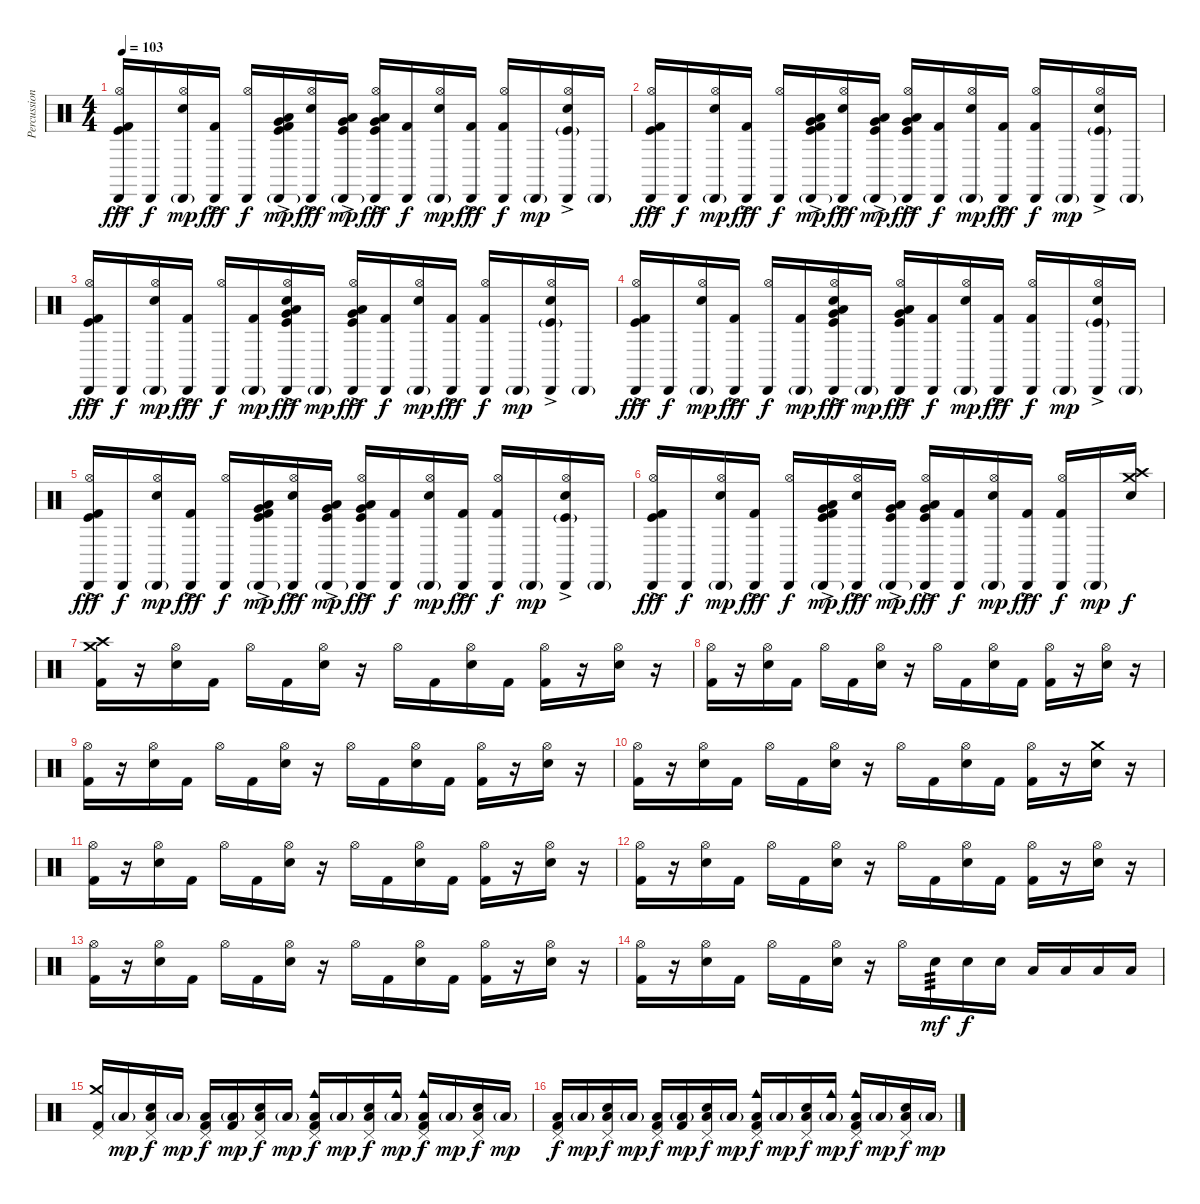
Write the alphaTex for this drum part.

\track ("Percussion" "Percussion") {instrument percussion}
\staff {score}
\articulation defaults
\ts (4 4)
\tempo 103
\clef neutral
\ks c
("Cabasa (hit)"{ac} "Kick (hit)" "Hi-Hat (open)" "Kick (hit) 2").16{dy fff} "Cabasa (hit)".16{dy f} ("Cabasa (hit)"{g} "Hi-Hat (open)" "Electric Snare (hit)").16{dy mp} ("Cabasa (hit)"{ac} "Kick (hit) 2").16{dy fff} ("Cabasa (hit)" "Hi-Hat (open)").16{dy f} ("Cabasa (hit)"{g} "Low Floor Tom (hit)"{ac} "Very Low Tom (hit)"{ac} "Kick (hit)"{ac} "Kick (hit) 2").16{dy mp} ("Cabasa (hit)"{ac} "Hi-Hat (open)" "Electric Snare (hit)").16{dy fff} ("Cabasa (hit)"{g} "Low Floor Tom (hit)"{ac} "Very Low Tom (hit)"{ac} "Kick (hit)"{ac}).16{dy mp} ("Cabasa (hit)"{ac} "Low Floor Tom (hit)"{ac} "Very Low Tom (hit)"{ac} "Kick (hit)"{ac} "Hi-Hat (open)").16{dy fff} ("Cabasa (hit)" "Kick (hit) 2").16{dy f} ("Cabasa (hit)"{g} "Hi-Hat (open)" "Electric Snare (hit)").16{dy mp} ("Cabasa (hit)"{ac} "Kick (hit) 2").16{dy fff} ("Cabasa (hit)" "Hi-Hat (open)" "Kick (hit) 2").16{dy f} "Cabasa (hit)"{g}.16{dy mp} ("Cabasa (hit)"{ac} "Kick (hit)"{g} "Hi-Hat (open)" "Electric Snare (hit)").16 "Cabasa (hit)"{g}.16 |
("Cabasa (hit)"{ac} "Kick (hit)" "Hi-Hat (open)" "Kick (hit) 2").16{dy fff} "Cabasa (hit)".16{dy f} ("Cabasa (hit)"{g} "Hi-Hat (open)" "Electric Snare (hit)").16{dy mp} ("Cabasa (hit)"{ac} "Kick (hit) 2").16{dy fff} ("Cabasa (hit)" "Hi-Hat (open)").16{dy f} ("Cabasa (hit)"{g} "Low Floor Tom (hit)"{ac} "Very Low Tom (hit)"{ac} "Kick (hit)"{ac} "Kick (hit) 2").16{dy mp} ("Cabasa (hit)"{ac} "Hi-Hat (open)" "Electric Snare (hit)").16{dy fff} ("Cabasa (hit)"{g} "Low Floor Tom (hit)"{ac} "Very Low Tom (hit)"{ac} "Kick (hit)"{ac}).16{dy mp} ("Cabasa (hit)"{ac} "Low Floor Tom (hit)"{ac} "Very Low Tom (hit)"{ac} "Kick (hit)"{ac} "Hi-Hat (open)").16{dy fff} ("Cabasa (hit)" "Kick (hit) 2").16{dy f} ("Cabasa (hit)"{g} "Hi-Hat (open)" "Electric Snare (hit)").16{dy mp} ("Cabasa (hit)"{ac} "Kick (hit) 2").16{dy fff} ("Cabasa (hit)" "Hi-Hat (open)" "Kick (hit) 2").16{dy f} "Cabasa (hit)"{g}.16{dy mp} ("Cabasa (hit)"{ac} "Kick (hit)"{g} "Hi-Hat (open)" "Electric Snare (hit)").16 "Cabasa (hit)"{g}.16 |
("Cabasa (hit)"{ac} "Kick (hit)" "Hi-Hat (open)" "Kick (hit) 2").16{dy fff} "Cabasa (hit)".16{dy f} ("Cabasa (hit)"{g} "Hi-Hat (open)" "Electric Snare (hit)").16{dy mp} ("Cabasa (hit)"{ac} "Kick (hit) 2").16{dy fff} ("Cabasa (hit)" "Hi-Hat (open)").16{dy f} ("Cabasa (hit)"{g} "Kick (hit) 2").16{dy mp} ("Cabasa (hit)"{ac} "Low Floor Tom (hit)"{ac} "Very Low Tom (hit)"{ac} "Kick (hit)"{ac} "Hi-Hat (open)" "Electric Snare (hit)").16{dy fff} "Cabasa (hit)"{g}.16{dy mp} ("Cabasa (hit)"{ac} "Low Floor Tom (hit)"{ac} "Very Low Tom (hit)"{ac} "Kick (hit)"{ac} "Hi-Hat (open)").16{dy fff} ("Cabasa (hit)" "Kick (hit) 2").16{dy f} ("Cabasa (hit)"{g} "Hi-Hat (open)" "Electric Snare (hit)").16{dy mp} ("Cabasa (hit)"{ac} "Kick (hit) 2").16{dy fff} ("Cabasa (hit)" "Hi-Hat (open)" "Kick (hit) 2").16{dy f} "Cabasa (hit)"{g}.16{dy mp} ("Cabasa (hit)"{ac} "Kick (hit)"{g} "Hi-Hat (open)" "Electric Snare (hit)").16 "Cabasa (hit)"{g}.16 |
("Cabasa (hit)"{ac} "Kick (hit)" "Hi-Hat (open)" "Kick (hit) 2").16{dy fff} "Cabasa (hit)".16{dy f} ("Cabasa (hit)"{g} "Hi-Hat (open)" "Electric Snare (hit)").16{dy mp} ("Cabasa (hit)"{ac} "Kick (hit) 2").16{dy fff} ("Cabasa (hit)" "Hi-Hat (open)").16{dy f} ("Cabasa (hit)"{g} "Kick (hit) 2").16{dy mp} ("Cabasa (hit)"{ac} "Low Floor Tom (hit)"{ac} "Very Low Tom (hit)"{ac} "Kick (hit)"{ac} "Hi-Hat (open)" "Electric Snare (hit)").16{dy fff} "Cabasa (hit)"{g}.16{dy mp} ("Cabasa (hit)"{ac} "Low Floor Tom (hit)"{ac} "Very Low Tom (hit)"{ac} "Kick (hit)"{ac} "Hi-Hat (open)").16{dy fff} ("Cabasa (hit)" "Kick (hit) 2").16{dy f} ("Cabasa (hit)"{g} "Hi-Hat (open)" "Electric Snare (hit)").16{dy mp} ("Cabasa (hit)"{ac} "Kick (hit) 2").16{dy fff} ("Cabasa (hit)" "Hi-Hat (open)" "Kick (hit) 2").16{dy f} "Cabasa (hit)"{g}.16{dy mp} ("Cabasa (hit)"{ac} "Kick (hit)"{g} "Hi-Hat (open)" "Electric Snare (hit)").16 "Cabasa (hit)"{g}.16 |
("Cabasa (hit)"{ac} "Kick (hit)" "Hi-Hat (open)" "Kick (hit) 2").16{dy fff} "Cabasa (hit)".16{dy f} ("Cabasa (hit)"{g} "Hi-Hat (open)" "Electric Snare (hit)").16{dy mp} ("Cabasa (hit)"{ac} "Kick (hit) 2").16{dy fff} ("Cabasa (hit)" "Hi-Hat (open)").16{dy f} ("Cabasa (hit)"{g} "Low Floor Tom (hit)"{ac} "Very Low Tom (hit)"{ac} "Kick (hit)"{ac} "Kick (hit) 2").16{dy mp} ("Cabasa (hit)"{ac} "Hi-Hat (open)" "Electric Snare (hit)").16{dy fff} ("Cabasa (hit)"{g} "Low Floor Tom (hit)"{ac} "Very Low Tom (hit)"{ac} "Kick (hit)"{ac}).16{dy mp} ("Cabasa (hit)"{ac} "Low Floor Tom (hit)"{ac} "Very Low Tom (hit)"{ac} "Kick (hit)"{ac} "Hi-Hat (open)").16{dy fff} ("Cabasa (hit)" "Kick (hit) 2").16{dy f} ("Cabasa (hit)"{g} "Hi-Hat (open)" "Electric Snare (hit)").16{dy mp} ("Cabasa (hit)"{ac} "Kick (hit) 2").16{dy fff} ("Cabasa (hit)" "Hi-Hat (open)" "Kick (hit) 2").16{dy f} "Cabasa (hit)"{g}.16{dy mp} ("Cabasa (hit)"{ac} "Kick (hit)"{g} "Hi-Hat (open)" "Electric Snare (hit)").16 "Cabasa (hit)"{g}.16 |
("Cabasa (hit)"{ac} "Kick (hit)" "Hi-Hat (open)" "Kick (hit) 2").16{dy fff} "Cabasa (hit)".16{dy f} ("Cabasa (hit)"{g} "Hi-Hat (open)" "Electric Snare (hit)").16{dy mp} ("Cabasa (hit)"{ac} "Kick (hit) 2").16{dy fff} ("Cabasa (hit)" "Hi-Hat (open)").16{dy f} ("Cabasa (hit)"{g} "Low Floor Tom (hit)"{ac} "Very Low Tom (hit)"{ac} "Kick (hit)"{ac} "Kick (hit) 2").16{dy mp} ("Cabasa (hit)"{ac} "Hi-Hat (open)" "Electric Snare (hit)").16{dy fff} ("Cabasa (hit)"{g} "Low Floor Tom (hit)"{ac} "Very Low Tom (hit)"{ac} "Kick (hit)"{ac}).16{dy mp} ("Cabasa (hit)"{ac} "Low Floor Tom (hit)"{ac} "Very Low Tom (hit)"{ac} "Kick (hit)"{ac} "Hi-Hat (open)").16{dy fff} ("Cabasa (hit)" "Kick (hit) 2").16{dy f} ("Cabasa (hit)"{g} "Hi-Hat (open)" "Electric Snare (hit)").16{dy mp} ("Cabasa (hit)"{ac} "Kick (hit) 2").16{dy fff} ("Cabasa (hit)" "Hi-Hat (open)" "Kick (hit) 2").16{dy f} "Cabasa (hit)"{g}.16{dy mp} ("Crash high (hit)" "Crash medium (hit)" "Electric Snare (hit)").16{dy f} |
("Crash high (hit)" "Kick (hit) 2" "Crash medium (hit)").16 r.16 ("Hi-Hat (open)" "Electric Snare (hit)").16 "Kick (hit) 2".16 "Hi-Hat (open)".16 "Kick (hit) 2".16 ("Hi-Hat (open)" "Electric Snare (hit)").16 r.16 "Hi-Hat (open)".16 "Kick (hit) 2".16 ("Hi-Hat (open)" "Electric Snare (hit)").16 "Kick (hit) 2".16 ("Hi-Hat (open)" "Kick (hit) 2").16 r.16 ("Hi-Hat (open)" "Electric Snare (hit)").16 r.16 |
("Hi-Hat (open)" "Kick (hit) 2").16 r.16 ("Hi-Hat (open)" "Electric Snare (hit)").16 "Kick (hit) 2".16 "Hi-Hat (open)".16 "Kick (hit) 2".16 ("Hi-Hat (open)" "Electric Snare (hit)").16 r.16 "Hi-Hat (open)".16 "Kick (hit) 2".16 ("Hi-Hat (open)" "Electric Snare (hit)").16 "Kick (hit) 2".16 ("Hi-Hat (open)" "Kick (hit) 2").16 r.16 ("Hi-Hat (open)" "Electric Snare (hit)").16 r.16 |
("Hi-Hat (open)" "Kick (hit) 2").16 r.16 ("Hi-Hat (open)" "Electric Snare (hit)").16 "Kick (hit) 2".16 "Hi-Hat (open)".16 "Kick (hit) 2".16 ("Hi-Hat (open)" "Electric Snare (hit)").16 r.16 "Hi-Hat (open)".16 "Kick (hit) 2".16 ("Hi-Hat (open)" "Electric Snare (hit)").16 "Kick (hit) 2".16 ("Hi-Hat (open)" "Kick (hit) 2").16 r.16 ("Hi-Hat (open)" "Electric Snare (hit)").16 r.16 |
("Hi-Hat (open)" "Kick (hit) 2").16 r.16 ("Hi-Hat (open)" "Electric Snare (hit)").16 "Kick (hit) 2".16 "Hi-Hat (open)".16 "Kick (hit) 2".16 ("Hi-Hat (open)" "Electric Snare (hit)").16 r.16 "Hi-Hat (open)".16 "Kick (hit) 2".16 ("Hi-Hat (open)" "Electric Snare (hit)").16 "Kick (hit) 2".16 ("Hi-Hat (open)" "Kick (hit) 2").16 r.16 ("Crash medium (hit)" "Electric Snare (hit)").16 r.16 |
("Hi-Hat (open)" "Kick (hit) 2").16 r.16 ("Hi-Hat (open)" "Electric Snare (hit)").16 "Kick (hit) 2".16 "Hi-Hat (open)".16 "Kick (hit) 2".16 ("Hi-Hat (open)" "Electric Snare (hit)").16 r.16 "Hi-Hat (open)".16 "Kick (hit) 2".16 ("Hi-Hat (open)" "Electric Snare (hit)").16 "Kick (hit) 2".16 ("Hi-Hat (open)" "Kick (hit) 2").16 r.16 ("Hi-Hat (open)" "Electric Snare (hit)").16 r.16 |
("Hi-Hat (open)" "Kick (hit) 2").16 r.16 ("Hi-Hat (open)" "Electric Snare (hit)").16 "Kick (hit) 2".16 "Hi-Hat (open)".16 "Kick (hit) 2".16 ("Hi-Hat (open)" "Electric Snare (hit)").16 r.16 "Hi-Hat (open)".16 "Kick (hit) 2".16 ("Hi-Hat (open)" "Electric Snare (hit)").16 "Kick (hit) 2".16 ("Hi-Hat (open)" "Kick (hit) 2").16 r.16 ("Hi-Hat (open)" "Electric Snare (hit)").16 r.16 |
("Hi-Hat (open)" "Kick (hit) 2").16 r.16 ("Hi-Hat (open)" "Electric Snare (hit)").16 "Kick (hit) 2".16 "Hi-Hat (open)".16 "Kick (hit) 2".16 ("Hi-Hat (open)" "Electric Snare (hit)").16 r.16 "Hi-Hat (open)".16 "Kick (hit) 2".16 ("Hi-Hat (open)" "Electric Snare (hit)").16 "Kick (hit) 2".16 ("Hi-Hat (open)" "Kick (hit) 2").16 r.16 ("Hi-Hat (open)" "Electric Snare (hit)").16 r.16 |
("Hi-Hat (open)" "Kick (hit) 2").16 r.16 ("Hi-Hat (open)" "Electric Snare (hit)").16 "Kick (hit) 2".16 "Hi-Hat (open)".16 "Kick (hit) 2".16 ("Hi-Hat (open)" "Electric Snare (hit)").16 r.16 "Hi-Hat (open)".16 "Electric Snare (hit)".16{tp 3 dy mf} "Electric Snare (hit)".16{dy f} "Electric Snare (hit)".16 "Low Tom (hit)".16 "Low Tom (hit)".16 "Low Floor Tom (hit)".16 "Low Floor Tom (hit)".16 |
("Crash medium (hit)" "Kick (hit) 2" "Pedal Hi-Hat (hit)").16 "Low Floor Tom (hit)"{g}.16{dy mp} ("Low Floor Tom (hit)" "Electric Snare (hit)" "Pedal Hi-Hat (hit)").16{dy f} "Low Floor Tom (hit)"{g}.16{dy mp} ("Low Floor Tom (hit)" "Kick (hit) 2" "Pedal Hi-Hat (hit)").16{dy f} ("Low Floor Tom (hit)"{g} "Kick (hit) 2").16{dy mp} ("Low Floor Tom (hit)" "Electric Snare (hit)" "Pedal Hi-Hat (hit)").16{dy f} "Low Floor Tom (hit)"{g}.16{dy mp} ("Low Floor Tom (hit)" "Kick (hit) 2" "Cowbell medium (hit)" "Pedal Hi-Hat (hit)").16{dy f} "Low Floor Tom (hit)"{g}.16{dy mp} ("Low Floor Tom (hit)" "Electric Snare (hit)" "Pedal Hi-Hat (hit)").16{dy f} ("Low Floor Tom (hit)"{g} "Cowbell medium (hit)").16{dy mp} ("Low Floor Tom (hit)" "Kick (hit) 2" "Cowbell medium (hit)" "Pedal Hi-Hat (hit)").16{dy f} "Low Floor Tom (hit)"{g}.16{dy mp} ("Low Floor Tom (hit)" "Electric Snare (hit)" "Pedal Hi-Hat (hit)").16{dy f} "Low Floor Tom (hit)"{g}.16{dy mp} |
("Low Floor Tom (hit)" "Kick (hit) 2" "Pedal Hi-Hat (hit)").16{dy f} "Low Floor Tom (hit)"{g}.16{dy mp} ("Low Floor Tom (hit)" "Electric Snare (hit)" "Pedal Hi-Hat (hit)").16{dy f} "Low Floor Tom (hit)"{g}.16{dy mp} ("Low Floor Tom (hit)" "Kick (hit) 2" "Pedal Hi-Hat (hit)").16{dy f} ("Low Floor Tom (hit)"{g} "Kick (hit) 2").16{dy mp} ("Low Floor Tom (hit)" "Electric Snare (hit)" "Pedal Hi-Hat (hit)").16{dy f} "Low Floor Tom (hit)"{g}.16{dy mp} ("Low Floor Tom (hit)" "Kick (hit) 2" "Cowbell medium (hit)" "Pedal Hi-Hat (hit)").16{dy f} "Low Floor Tom (hit)"{g}.16{dy mp} ("Low Floor Tom (hit)" "Electric Snare (hit)" "Pedal Hi-Hat (hit)").16{dy f} ("Low Floor Tom (hit)"{g} "Cowbell medium (hit)").16{dy mp} ("Low Floor Tom (hit)" "Kick (hit) 2" "Cowbell medium (hit)" "Pedal Hi-Hat (hit)").16{dy f} "Low Floor Tom (hit)"{g}.16{dy mp} ("Low Floor Tom (hit)" "Electric Snare (hit)" "Pedal Hi-Hat (hit)").16{dy f} "Low Floor Tom (hit)"{g}.16{dy mp}
